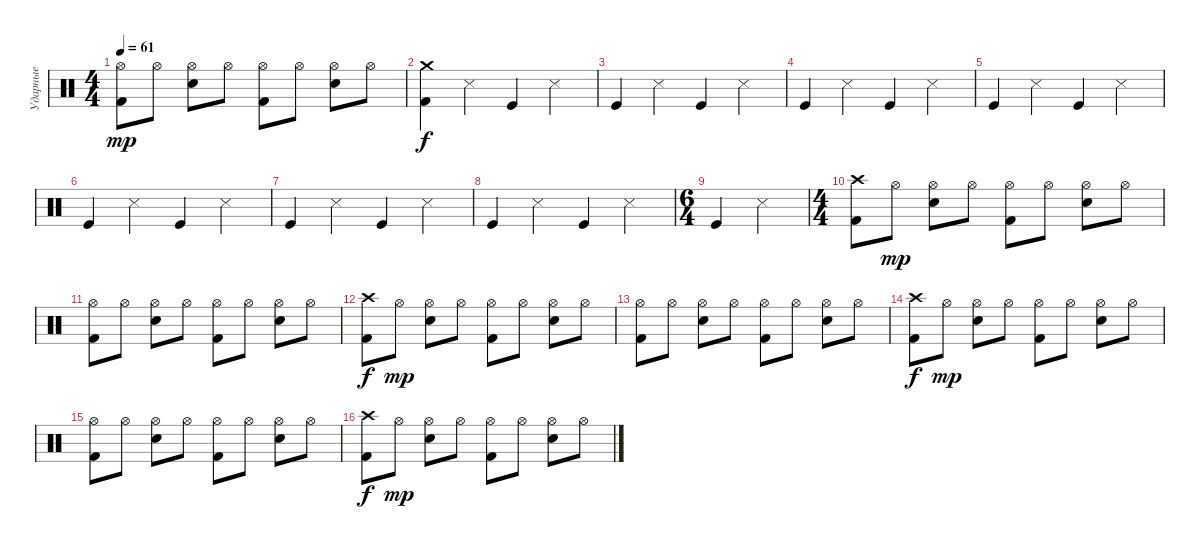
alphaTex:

\track ("Ударные" "Ударные") {instrument percussion}
\staff {score}
\articulation defaults
\ts (4 4)
\tempo 61
\clef neutral
\ks c
("Kick (hit) 2" "Hi-Hat (open)").8{dy mp} "Hi-Hat (open)".8 ("Electric Snare (hit)" "Hi-Hat (open)").8 "Hi-Hat (open)".8 ("Kick (hit) 2" "Hi-Hat (open)").8 "Hi-Hat (open)".8 ("Electric Snare (hit)" "Hi-Hat (open)").8 "Hi-Hat (open)".8 |
("Kick (hit) 2" "Crash medium (hit)").4{dy f} "Snare (side stick) 3".4 "Kick (hit)".4 "Snare (side stick) 3".4 |
"Kick (hit)".4 "Snare (side stick) 3".4 "Kick (hit)".4 "Snare (side stick) 3".4 |
"Kick (hit)".4 "Snare (side stick) 3".4 "Kick (hit)".4 "Snare (side stick) 3".4 |
"Kick (hit)".4 "Snare (side stick) 3".4 "Kick (hit)".4 "Snare (side stick) 3".4 |
"Kick (hit)".4 "Snare (side stick) 3".4 "Kick (hit)".4 "Snare (side stick) 3".4 |
"Kick (hit)".4 "Snare (side stick) 3".4 "Kick (hit)".4 "Snare (side stick) 3".4 |
"Kick (hit)".4 "Snare (side stick) 3".4 "Kick (hit)".4 "Snare (side stick) 3".4 |
\ts (6 4)
"Kick (hit)".4 "Snare (side stick) 3".4 |
\ts (4 4)
("Kick (hit) 2" "Crash high (hit)").8 "Hi-Hat (open)".8{dy mp} ("Electric Snare (hit)" "Hi-Hat (open)").8 "Hi-Hat (open)".8 ("Kick (hit) 2" "Hi-Hat (open)").8 "Hi-Hat (open)".8 ("Electric Snare (hit)" "Hi-Hat (open)").8 "Hi-Hat (open)".8 |
("Kick (hit) 2" "Hi-Hat (open)").8 "Hi-Hat (open)".8 ("Electric Snare (hit)" "Hi-Hat (open)").8 "Hi-Hat (open)".8 ("Kick (hit) 2" "Hi-Hat (open)").8 "Hi-Hat (open)".8 ("Electric Snare (hit)" "Hi-Hat (open)").8 "Hi-Hat (open)".8 |
("Kick (hit) 2" "Crash high (hit)").8{dy f} "Hi-Hat (open)".8{dy mp} ("Electric Snare (hit)" "Hi-Hat (open)").8 "Hi-Hat (open)".8 ("Kick (hit) 2" "Hi-Hat (open)").8 "Hi-Hat (open)".8 ("Electric Snare (hit)" "Hi-Hat (open)").8 "Hi-Hat (open)".8 |
("Kick (hit) 2" "Hi-Hat (open)").8 "Hi-Hat (open)".8 ("Electric Snare (hit)" "Hi-Hat (open)").8 "Hi-Hat (open)".8 ("Kick (hit) 2" "Hi-Hat (open)").8 "Hi-Hat (open)".8 ("Electric Snare (hit)" "Hi-Hat (open)").8 "Hi-Hat (open)".8 |
("Kick (hit) 2" "Crash high (hit)").8{dy f} "Hi-Hat (open)".8{dy mp} ("Electric Snare (hit)" "Hi-Hat (open)").8 "Hi-Hat (open)".8 ("Kick (hit) 2" "Hi-Hat (open)").8 "Hi-Hat (open)".8 ("Electric Snare (hit)" "Hi-Hat (open)").8 "Hi-Hat (open)".8 |
("Kick (hit) 2" "Hi-Hat (open)").8 "Hi-Hat (open)".8 ("Electric Snare (hit)" "Hi-Hat (open)").8 "Hi-Hat (open)".8 ("Kick (hit) 2" "Hi-Hat (open)").8 "Hi-Hat (open)".8 ("Electric Snare (hit)" "Hi-Hat (open)").8 "Hi-Hat (open)".8 |
("Kick (hit) 2" "Crash high (hit)").8{dy f} "Hi-Hat (open)".8{dy mp} ("Electric Snare (hit)" "Hi-Hat (open)").8 "Hi-Hat (open)".8 ("Kick (hit) 2" "Hi-Hat (open)").8 "Hi-Hat (open)".8 ("Electric Snare (hit)" "Hi-Hat (open)").8 "Hi-Hat (open)".8
